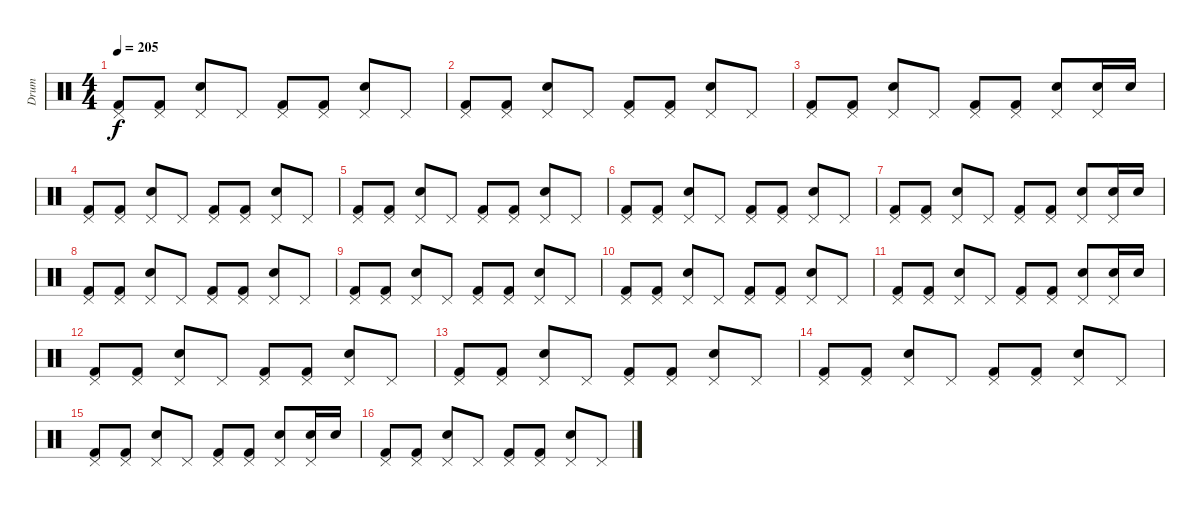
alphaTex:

\track ("Drum" "Drum") {instrument percussion}
\staff {score}
\articulation defaults
\ts (4 4)
\tempo 205
\clef neutral
\ks c
("Pedal Hi-Hat (hit)" "Kick (hit) 2").8{dy f} ("Pedal Hi-Hat (hit)" "Kick (hit) 2").8 ("Pedal Hi-Hat (hit)" "Snare (hit) 2").8 "Pedal Hi-Hat (hit)".8 ("Pedal Hi-Hat (hit)" "Kick (hit) 2").8 ("Pedal Hi-Hat (hit)" "Kick (hit) 2").8 ("Pedal Hi-Hat (hit)" "Snare (hit) 2").8 "Pedal Hi-Hat (hit)".8 |
("Pedal Hi-Hat (hit)" "Kick (hit) 2").8 ("Pedal Hi-Hat (hit)" "Kick (hit) 2").8 ("Pedal Hi-Hat (hit)" "Snare (hit) 2").8 "Pedal Hi-Hat (hit)".8 ("Pedal Hi-Hat (hit)" "Kick (hit) 2").8 ("Pedal Hi-Hat (hit)" "Kick (hit) 2").8 ("Pedal Hi-Hat (hit)" "Snare (hit) 2").8 "Pedal Hi-Hat (hit)".8 |
("Pedal Hi-Hat (hit)" "Kick (hit) 2").8 ("Pedal Hi-Hat (hit)" "Kick (hit) 2").8 ("Pedal Hi-Hat (hit)" "Snare (hit) 2").8 "Pedal Hi-Hat (hit)".8 ("Pedal Hi-Hat (hit)" "Kick (hit) 2").8 ("Pedal Hi-Hat (hit)" "Kick (hit) 2").8 ("Pedal Hi-Hat (hit)" "Snare (hit) 2").8 ("Pedal Hi-Hat (hit)" "Snare (hit) 2").16 "Snare (hit) 2".16 |
("Pedal Hi-Hat (hit)" "Kick (hit) 2").8 ("Pedal Hi-Hat (hit)" "Kick (hit) 2").8 ("Pedal Hi-Hat (hit)" "Snare (hit) 2").8 "Pedal Hi-Hat (hit)".8 ("Pedal Hi-Hat (hit)" "Kick (hit) 2").8 ("Pedal Hi-Hat (hit)" "Kick (hit) 2").8 ("Pedal Hi-Hat (hit)" "Snare (hit) 2").8 "Pedal Hi-Hat (hit)".8 |
("Pedal Hi-Hat (hit)" "Kick (hit) 2").8 ("Pedal Hi-Hat (hit)" "Kick (hit) 2").8 ("Pedal Hi-Hat (hit)" "Snare (hit) 2").8 "Pedal Hi-Hat (hit)".8 ("Pedal Hi-Hat (hit)" "Kick (hit) 2").8 ("Pedal Hi-Hat (hit)" "Kick (hit) 2").8 ("Pedal Hi-Hat (hit)" "Snare (hit) 2").8 "Pedal Hi-Hat (hit)".8 |
("Pedal Hi-Hat (hit)" "Kick (hit) 2").8 ("Pedal Hi-Hat (hit)" "Kick (hit) 2").8 ("Pedal Hi-Hat (hit)" "Snare (hit) 2").8 "Pedal Hi-Hat (hit)".8 ("Pedal Hi-Hat (hit)" "Kick (hit) 2").8 ("Pedal Hi-Hat (hit)" "Kick (hit) 2").8 ("Pedal Hi-Hat (hit)" "Snare (hit) 2").8 "Pedal Hi-Hat (hit)".8 |
("Pedal Hi-Hat (hit)" "Kick (hit) 2").8 ("Pedal Hi-Hat (hit)" "Kick (hit) 2").8 ("Pedal Hi-Hat (hit)" "Snare (hit) 2").8 "Pedal Hi-Hat (hit)".8 ("Pedal Hi-Hat (hit)" "Kick (hit) 2").8 ("Pedal Hi-Hat (hit)" "Kick (hit) 2").8 ("Pedal Hi-Hat (hit)" "Snare (hit) 2").8 ("Pedal Hi-Hat (hit)" "Snare (hit) 2").16 "Snare (hit) 2".16 |
("Pedal Hi-Hat (hit)" "Kick (hit) 2").8 ("Pedal Hi-Hat (hit)" "Kick (hit) 2").8 ("Pedal Hi-Hat (hit)" "Snare (hit) 2").8 "Pedal Hi-Hat (hit)".8 ("Pedal Hi-Hat (hit)" "Kick (hit) 2").8 ("Pedal Hi-Hat (hit)" "Kick (hit) 2").8 ("Pedal Hi-Hat (hit)" "Snare (hit) 2").8 "Pedal Hi-Hat (hit)".8 |
("Pedal Hi-Hat (hit)" "Kick (hit) 2").8 ("Pedal Hi-Hat (hit)" "Kick (hit) 2").8 ("Pedal Hi-Hat (hit)" "Snare (hit) 2").8 "Pedal Hi-Hat (hit)".8 ("Pedal Hi-Hat (hit)" "Kick (hit) 2").8 ("Pedal Hi-Hat (hit)" "Kick (hit) 2").8 ("Pedal Hi-Hat (hit)" "Snare (hit) 2").8 "Pedal Hi-Hat (hit)".8 |
("Pedal Hi-Hat (hit)" "Kick (hit) 2").8 ("Pedal Hi-Hat (hit)" "Kick (hit) 2").8 ("Pedal Hi-Hat (hit)" "Snare (hit) 2").8 "Pedal Hi-Hat (hit)".8 ("Pedal Hi-Hat (hit)" "Kick (hit) 2").8 ("Pedal Hi-Hat (hit)" "Kick (hit) 2").8 ("Pedal Hi-Hat (hit)" "Snare (hit) 2").8 "Pedal Hi-Hat (hit)".8 |
("Pedal Hi-Hat (hit)" "Kick (hit) 2").8 ("Pedal Hi-Hat (hit)" "Kick (hit) 2").8 ("Pedal Hi-Hat (hit)" "Snare (hit) 2").8 "Pedal Hi-Hat (hit)".8 ("Pedal Hi-Hat (hit)" "Kick (hit) 2").8 ("Pedal Hi-Hat (hit)" "Kick (hit) 2").8 ("Pedal Hi-Hat (hit)" "Snare (hit) 2").8 ("Pedal Hi-Hat (hit)" "Snare (hit) 2").16 "Snare (hit) 2".16 |
("Pedal Hi-Hat (hit)" "Kick (hit) 2").8 ("Pedal Hi-Hat (hit)" "Kick (hit) 2").8 ("Pedal Hi-Hat (hit)" "Snare (hit) 2").8 "Pedal Hi-Hat (hit)".8 ("Pedal Hi-Hat (hit)" "Kick (hit) 2").8 ("Pedal Hi-Hat (hit)" "Kick (hit) 2").8 ("Pedal Hi-Hat (hit)" "Snare (hit) 2").8 "Pedal Hi-Hat (hit)".8 |
("Pedal Hi-Hat (hit)" "Kick (hit) 2").8 ("Pedal Hi-Hat (hit)" "Kick (hit) 2").8 ("Pedal Hi-Hat (hit)" "Snare (hit) 2").8 "Pedal Hi-Hat (hit)".8 ("Pedal Hi-Hat (hit)" "Kick (hit) 2").8 ("Pedal Hi-Hat (hit)" "Kick (hit) 2").8 ("Pedal Hi-Hat (hit)" "Snare (hit) 2").8 "Pedal Hi-Hat (hit)".8 |
("Pedal Hi-Hat (hit)" "Kick (hit) 2").8 ("Pedal Hi-Hat (hit)" "Kick (hit) 2").8 ("Pedal Hi-Hat (hit)" "Snare (hit) 2").8 "Pedal Hi-Hat (hit)".8 ("Pedal Hi-Hat (hit)" "Kick (hit) 2").8 ("Pedal Hi-Hat (hit)" "Kick (hit) 2").8 ("Pedal Hi-Hat (hit)" "Snare (hit) 2").8 "Pedal Hi-Hat (hit)".8 |
("Pedal Hi-Hat (hit)" "Kick (hit) 2").8 ("Pedal Hi-Hat (hit)" "Kick (hit) 2").8 ("Pedal Hi-Hat (hit)" "Snare (hit) 2").8 "Pedal Hi-Hat (hit)".8 ("Pedal Hi-Hat (hit)" "Kick (hit) 2").8 ("Pedal Hi-Hat (hit)" "Kick (hit) 2").8 ("Pedal Hi-Hat (hit)" "Snare (hit) 2").8 ("Pedal Hi-Hat (hit)" "Snare (hit) 2").16 "Snare (hit) 2".16 |
("Pedal Hi-Hat (hit)" "Kick (hit) 2").8 ("Pedal Hi-Hat (hit)" "Kick (hit) 2").8 ("Pedal Hi-Hat (hit)" "Snare (hit) 2").8 "Pedal Hi-Hat (hit)".8 ("Pedal Hi-Hat (hit)" "Kick (hit) 2").8 ("Pedal Hi-Hat (hit)" "Kick (hit) 2").8 ("Pedal Hi-Hat (hit)" "Snare (hit) 2").8 "Pedal Hi-Hat (hit)".8
